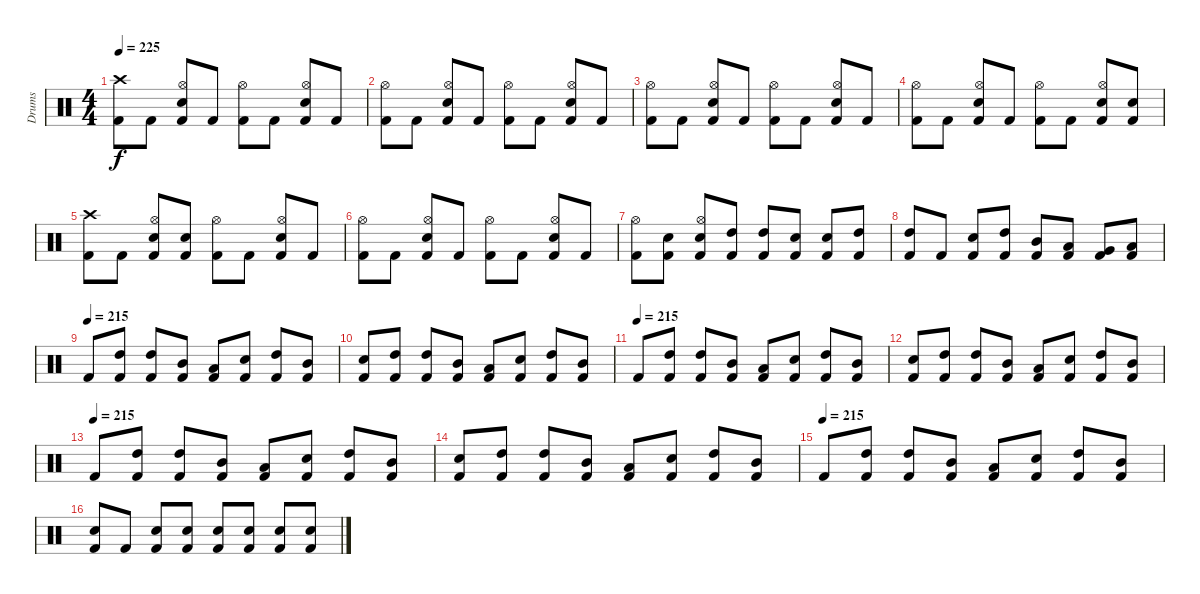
\track ("Drums" "Drums") {instrument percussion}
\staff {score}
\articulation defaults
\ts (4 4)
\tempo 225
\clef neutral
\ks c
("Crash high (hit)" "Kick (hit) 2").8{dy f} "Kick (hit) 2".8 ("Hi-Hat (open)" "Electric Snare (hit)" "Kick (hit) 2").8 "Kick (hit) 2".8 ("Hi-Hat (open)" "Kick (hit) 2").8 "Kick (hit) 2".8 ("Hi-Hat (open)" "Electric Snare (hit)" "Kick (hit) 2").8 "Kick (hit) 2".8 |
("Hi-Hat (open)" "Kick (hit) 2").8 "Kick (hit) 2".8 ("Hi-Hat (open)" "Electric Snare (hit)" "Kick (hit) 2").8 "Kick (hit) 2".8 ("Hi-Hat (open)" "Kick (hit) 2").8 "Kick (hit) 2".8 ("Hi-Hat (open)" "Electric Snare (hit)" "Kick (hit) 2").8 "Kick (hit) 2".8 |
("Hi-Hat (open)" "Kick (hit) 2").8 "Kick (hit) 2".8 ("Hi-Hat (open)" "Electric Snare (hit)" "Kick (hit) 2").8 "Kick (hit) 2".8 ("Hi-Hat (open)" "Kick (hit) 2").8 "Kick (hit) 2".8 ("Hi-Hat (open)" "Electric Snare (hit)" "Kick (hit) 2").8 "Kick (hit) 2".8 |
("Hi-Hat (open)" "Kick (hit) 2").8 "Kick (hit) 2".8 ("Hi-Hat (open)" "Electric Snare (hit)" "Kick (hit) 2").8 "Kick (hit) 2".8 ("Hi-Hat (open)" "Kick (hit) 2").8 "Kick (hit) 2".8 ("Hi-Hat (open)" "Electric Snare (hit)" "Kick (hit) 2").8 ("Electric Snare (hit)" "Kick (hit) 2").8 |
("Crash high (hit)" "Kick (hit) 2").8 "Kick (hit) 2".8 ("Hi-Hat (open)" "Electric Snare (hit)" "Kick (hit) 2").8 ("Electric Snare (hit)" "Kick (hit) 2").8 ("Hi-Hat (open)" "Kick (hit) 2").8 "Kick (hit) 2".8 ("Hi-Hat (open)" "Electric Snare (hit)" "Kick (hit) 2").8 "Kick (hit) 2".8 |
("Hi-Hat (open)" "Kick (hit) 2").8 "Kick (hit) 2".8 ("Hi-Hat (open)" "Electric Snare (hit)" "Kick (hit) 2").8 "Kick (hit) 2".8 ("Hi-Hat (open)" "Kick (hit) 2").8 "Kick (hit) 2".8 ("Hi-Hat (open)" "Electric Snare (hit)" "Kick (hit) 2").8 "Kick (hit) 2".8 |
("Hi-Hat (open)" "Kick (hit) 2").8 ("Electric Snare (hit)" "Kick (hit) 2").8 ("Hi-Hat (open)" "Electric Snare (hit)" "Kick (hit) 2").8 ("High Tom (hit)" "Kick (hit) 2").8 ("High Tom (hit)" "Kick (hit) 2").8 ("Electric Snare (hit)" "Kick (hit) 2").8 ("Electric Snare (hit)" "Kick (hit) 2").8 ("High Tom (hit)" "Kick (hit) 2").8 |
("High Tom (hit)" "Kick (hit) 2").8 "Kick (hit) 2".8 ("Electric Snare (hit)" "Kick (hit) 2").8 ("High Tom (hit)" "Kick (hit) 2").8 ("Mid Tom (hit)" "Kick (hit) 2").8 ("Low Tom (hit)" "Kick (hit) 2").8 ("Very Low Tom (hit)" "Kick (hit) 2").8 ("Low Floor Tom (hit)" "Kick (hit) 2").8 |
\tempo (215)
"Kick (hit) 2".8 ("High Tom (hit)" "Kick (hit) 2").8 ("High Tom (hit)" "Kick (hit) 2").8 ("Mid Tom (hit)" "Kick (hit) 2").8 ("Low Tom (hit)" "Kick (hit) 2").8 ("Electric Snare (hit)" "Kick (hit) 2").8 ("High Tom (hit)" "Kick (hit) 2").8 ("Mid Tom (hit)" "Kick (hit) 2").8 |
("Electric Snare (hit)" "Kick (hit) 2").8 ("High Tom (hit)" "Kick (hit) 2").8 ("High Tom (hit)" "Kick (hit) 2").8 ("Mid Tom (hit)" "Kick (hit) 2").8 ("Low Tom (hit)" "Kick (hit) 2").8 ("Electric Snare (hit)" "Kick (hit) 2").8 ("High Tom (hit)" "Kick (hit) 2").8 ("Mid Tom (hit)" "Kick (hit) 2").8 |
\tempo (215)
"Kick (hit) 2".8 ("High Tom (hit)" "Kick (hit) 2").8 ("High Tom (hit)" "Kick (hit) 2").8 ("Mid Tom (hit)" "Kick (hit) 2").8 ("Low Tom (hit)" "Kick (hit) 2").8 ("Electric Snare (hit)" "Kick (hit) 2").8 ("High Tom (hit)" "Kick (hit) 2").8 ("Mid Tom (hit)" "Kick (hit) 2").8 |
("Electric Snare (hit)" "Kick (hit) 2").8 ("High Tom (hit)" "Kick (hit) 2").8 ("High Tom (hit)" "Kick (hit) 2").8 ("Mid Tom (hit)" "Kick (hit) 2").8 ("Low Tom (hit)" "Kick (hit) 2").8 ("Electric Snare (hit)" "Kick (hit) 2").8 ("High Tom (hit)" "Kick (hit) 2").8 ("Mid Tom (hit)" "Kick (hit) 2").8 |
\tempo (215)
"Kick (hit) 2".8 ("High Tom (hit)" "Kick (hit) 2").8 ("High Tom (hit)" "Kick (hit) 2").8 ("Mid Tom (hit)" "Kick (hit) 2").8 ("Low Tom (hit)" "Kick (hit) 2").8 ("Electric Snare (hit)" "Kick (hit) 2").8 ("High Tom (hit)" "Kick (hit) 2").8 ("Mid Tom (hit)" "Kick (hit) 2").8 |
("Electric Snare (hit)" "Kick (hit) 2").8 ("High Tom (hit)" "Kick (hit) 2").8 ("High Tom (hit)" "Kick (hit) 2").8 ("Mid Tom (hit)" "Kick (hit) 2").8 ("Low Tom (hit)" "Kick (hit) 2").8 ("Electric Snare (hit)" "Kick (hit) 2").8 ("High Tom (hit)" "Kick (hit) 2").8 ("Mid Tom (hit)" "Kick (hit) 2").8 |
\tempo (215)
"Kick (hit) 2".8 ("High Tom (hit)" "Kick (hit) 2").8 ("High Tom (hit)" "Kick (hit) 2").8 ("Mid Tom (hit)" "Kick (hit) 2").8 ("Low Tom (hit)" "Kick (hit) 2").8 ("Electric Snare (hit)" "Kick (hit) 2").8 ("High Tom (hit)" "Kick (hit) 2").8 ("Mid Tom (hit)" "Kick (hit) 2").8 |
("Electric Snare (hit)" "Kick (hit) 2").8 "Kick (hit) 2".8 ("Electric Snare (hit)" "Kick (hit) 2").8 ("Electric Snare (hit)" "Kick (hit) 2").8 ("Electric Snare (hit)" "Kick (hit) 2").8 ("Electric Snare (hit)" "Kick (hit) 2").8 ("Electric Snare (hit)" "Kick (hit) 2").8 ("Electric Snare (hit)" "Kick (hit) 2").8
